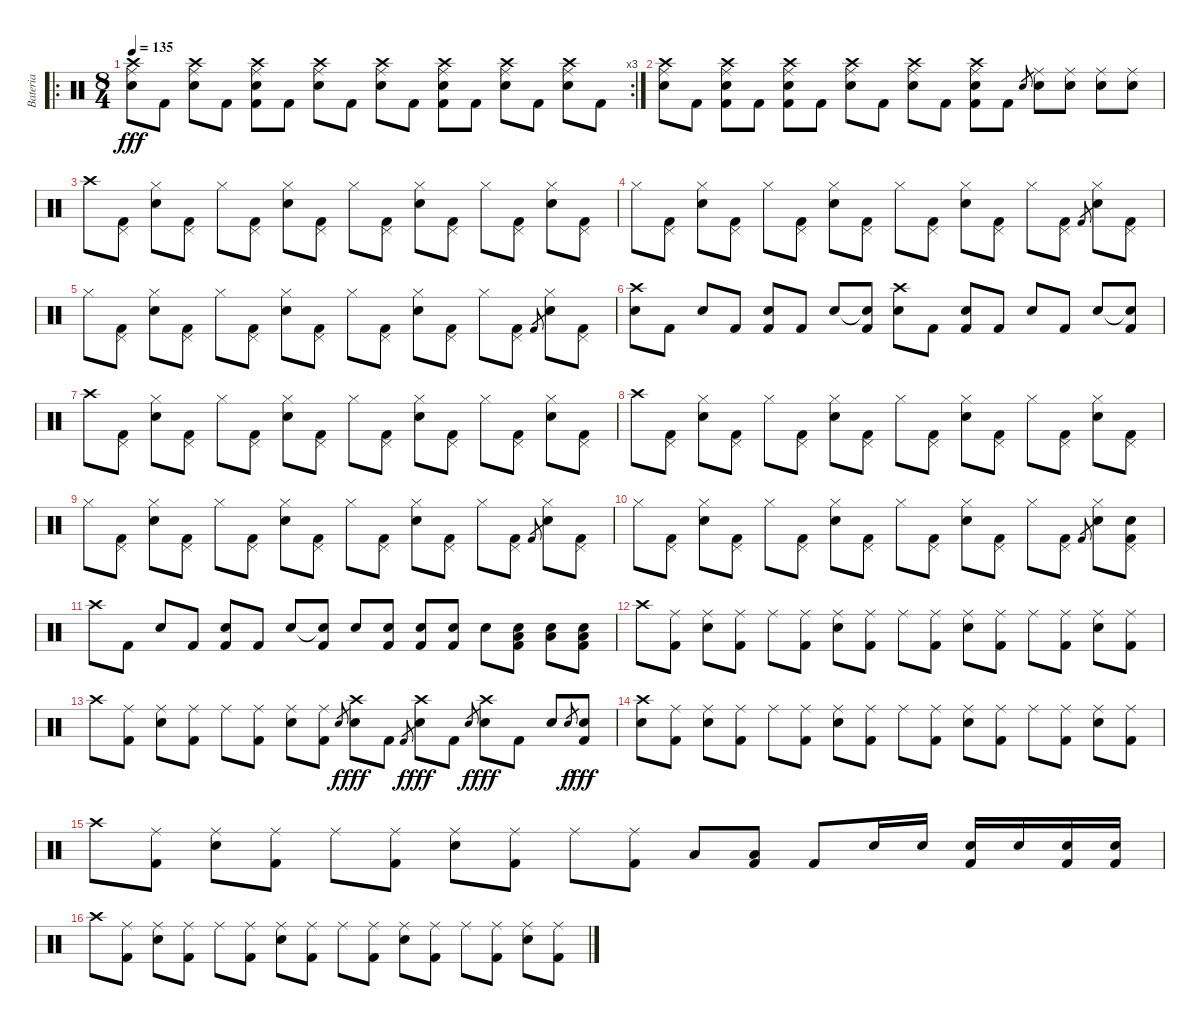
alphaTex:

\track ("Bateria" "Bateria") {instrument percussion}
\staff {score}
\articulation defaults
\ro
\rc 3
\ts (8 4)
\tempo 135
\clef neutral
\ks c
("Ride (middle)" "Crash high (hit)" "Electric Snare (hit)").8{dy fff} "Kick (hit) 2".8 ("Ride (middle)" "Crash high (hit)" "Electric Snare (hit)").8 "Kick (hit) 2".8 ("Ride (middle)" "Crash high (hit)" "Electric Snare (hit)" "Kick (hit) 2").8 "Kick (hit) 2".8 ("Ride (middle)" "Crash high (hit)" "Electric Snare (hit)").8 "Kick (hit) 2".8 ("Ride (middle)" "Crash high (hit)" "Electric Snare (hit)").8 "Kick (hit) 2".8 ("Ride (middle)" "Crash high (hit)" "Electric Snare (hit)" "Kick (hit) 2").8 "Kick (hit) 2".8 ("Ride (middle)" "Crash high (hit)" "Electric Snare (hit)").8 "Kick (hit) 2".8 ("Ride (middle)" "Crash high (hit)" "Electric Snare (hit)").8 "Kick (hit) 2".8 |
("Ride (middle)" "Crash high (hit)" "Electric Snare (hit)").8 "Kick (hit) 2".8 ("Ride (middle)" "Crash high (hit)" "Electric Snare (hit)" "Kick (hit) 2").8 "Kick (hit) 2".8 ("Ride (middle)" "Crash high (hit)" "Electric Snare (hit)" "Kick (hit) 2").8 "Kick (hit) 2".8 ("Ride (middle)" "Crash high (hit)" "Electric Snare (hit)").8 "Kick (hit) 2".8 ("Ride (middle)" "Crash high (hit)" "Electric Snare (hit)").8 "Kick (hit) 2".8 ("Ride (middle)" "Crash high (hit)" "Electric Snare (hit)" "Kick (hit) 2").8 "Kick (hit) 2".8 "Electric Snare (hit)".8{gr} ("Ride (middle)" "Electric Snare (hit)").8 ("Ride (middle)" "Electric Snare (hit)").8 ("Ride (middle)" "Electric Snare (hit)").8 ("Ride (middle)" "Electric Snare (hit)").8 |
"Crash high (hit)".8 ("Pedal Hi-Hat (hit)" "Kick (hit) 2").8 ("Hi-Hat (closed)" "Electric Snare (hit)").8 ("Pedal Hi-Hat (hit)" "Kick (hit) 2").8 "Hi-Hat (closed)".8 ("Pedal Hi-Hat (hit)" "Kick (hit) 2").8 ("Hi-Hat (closed)" "Electric Snare (hit)").8 ("Pedal Hi-Hat (hit)" "Kick (hit) 2").8 "Hi-Hat (closed)".8 ("Pedal Hi-Hat (hit)" "Kick (hit) 2").8 ("Hi-Hat (closed)" "Electric Snare (hit)").8 ("Pedal Hi-Hat (hit)" "Kick (hit) 2").8 "Hi-Hat (closed)".8 ("Pedal Hi-Hat (hit)" "Kick (hit) 2").8 ("Hi-Hat (closed)" "Electric Snare (hit)").8 ("Pedal Hi-Hat (hit)" "Kick (hit) 2").8 |
"Hi-Hat (closed)".8 ("Pedal Hi-Hat (hit)" "Kick (hit) 2").8 ("Hi-Hat (closed)" "Electric Snare (hit)").8 ("Pedal Hi-Hat (hit)" "Kick (hit) 2").8 "Hi-Hat (closed)".8 ("Pedal Hi-Hat (hit)" "Kick (hit) 2").8 ("Hi-Hat (closed)" "Electric Snare (hit)").8 ("Pedal Hi-Hat (hit)" "Kick (hit) 2").8 "Hi-Hat (closed)".8 ("Pedal Hi-Hat (hit)" "Kick (hit) 2").8 ("Hi-Hat (closed)" "Electric Snare (hit)").8 ("Pedal Hi-Hat (hit)" "Kick (hit) 2").8 "Hi-Hat (closed)".8 ("Pedal Hi-Hat (hit)" "Kick (hit) 2").8 "Kick (hit) 2".8{gr} ("Hi-Hat (closed)" "Electric Snare (hit)").8 ("Pedal Hi-Hat (hit)" "Kick (hit) 2").8 |
"Hi-Hat (closed)".8 ("Pedal Hi-Hat (hit)" "Kick (hit) 2").8 ("Hi-Hat (closed)" "Electric Snare (hit)").8 ("Pedal Hi-Hat (hit)" "Kick (hit) 2").8 "Hi-Hat (closed)".8 ("Pedal Hi-Hat (hit)" "Kick (hit) 2").8 ("Hi-Hat (closed)" "Electric Snare (hit)").8 ("Pedal Hi-Hat (hit)" "Kick (hit) 2").8 "Hi-Hat (closed)".8 ("Pedal Hi-Hat (hit)" "Kick (hit) 2").8 ("Hi-Hat (closed)" "Electric Snare (hit)").8 ("Pedal Hi-Hat (hit)" "Kick (hit) 2").8 "Hi-Hat (closed)".8 ("Pedal Hi-Hat (hit)" "Kick (hit) 2").8 "Kick (hit) 2".8{gr} ("Hi-Hat (closed)" "Electric Snare (hit)").8 ("Pedal Hi-Hat (hit)" "Kick (hit) 2").8 |
("Crash high (hit)" "Electric Snare (hit)").8 "Kick (hit) 2".8 "Electric Snare (hit)".8 "Kick (hit) 2".8 ("Electric Snare (hit)" "Kick (hit) 2").8 "Kick (hit) 2".8 "Electric Snare (hit)".8 ("Snare (hit)"{t} "Kick (hit) 2").8 ("Crash high (hit)" "Electric Snare (hit)").8 "Kick (hit) 2".8 ("Electric Snare (hit)" "Kick (hit) 2").8 "Kick (hit) 2".8 "Electric Snare (hit)".8 "Kick (hit) 2".8 "Electric Snare (hit)".8 ("Snare (hit)"{t} "Kick (hit) 2").8 |
"Crash high (hit)".8 ("Pedal Hi-Hat (hit)" "Kick (hit) 2").8 ("Hi-Hat (closed)" "Electric Snare (hit)").8 ("Pedal Hi-Hat (hit)" "Kick (hit) 2").8 "Hi-Hat (closed)".8 ("Pedal Hi-Hat (hit)" "Kick (hit) 2").8 ("Hi-Hat (closed)" "Electric Snare (hit)").8 ("Pedal Hi-Hat (hit)" "Kick (hit) 2").8 "Hi-Hat (closed)".8 ("Pedal Hi-Hat (hit)" "Kick (hit) 2").8 ("Hi-Hat (closed)" "Electric Snare (hit)").8 ("Pedal Hi-Hat (hit)" "Kick (hit) 2").8 "Hi-Hat (closed)".8 ("Pedal Hi-Hat (hit)" "Kick (hit) 2").8 ("Hi-Hat (closed)" "Electric Snare (hit)").8 ("Pedal Hi-Hat (hit)" "Kick (hit) 2").8 |
"Crash high (hit)".8 ("Pedal Hi-Hat (hit)" "Kick (hit) 2").8 ("Hi-Hat (closed)" "Electric Snare (hit)").8 ("Pedal Hi-Hat (hit)" "Kick (hit) 2").8 "Hi-Hat (closed)".8 ("Pedal Hi-Hat (hit)" "Kick (hit) 2").8 ("Hi-Hat (closed)" "Electric Snare (hit)").8 ("Pedal Hi-Hat (hit)" "Kick (hit) 2").8 "Hi-Hat (closed)".8 ("Pedal Hi-Hat (hit)" "Kick (hit) 2").8 ("Hi-Hat (closed)" "Electric Snare (hit)").8 ("Pedal Hi-Hat (hit)" "Kick (hit) 2").8 "Hi-Hat (closed)".8 ("Pedal Hi-Hat (hit)" "Kick (hit) 2").8 ("Hi-Hat (closed)" "Electric Snare (hit)").8 ("Pedal Hi-Hat (hit)" "Kick (hit) 2").8 |
"Hi-Hat (closed)".8 ("Pedal Hi-Hat (hit)" "Kick (hit) 2").8 ("Hi-Hat (closed)" "Electric Snare (hit)").8 ("Pedal Hi-Hat (hit)" "Kick (hit) 2").8 "Hi-Hat (closed)".8 ("Pedal Hi-Hat (hit)" "Kick (hit) 2").8 ("Hi-Hat (closed)" "Electric Snare (hit)").8 ("Pedal Hi-Hat (hit)" "Kick (hit) 2").8 "Hi-Hat (closed)".8 ("Pedal Hi-Hat (hit)" "Kick (hit) 2").8 ("Hi-Hat (closed)" "Electric Snare (hit)").8 ("Pedal Hi-Hat (hit)" "Kick (hit) 2").8 "Hi-Hat (closed)".8 ("Pedal Hi-Hat (hit)" "Kick (hit) 2").8 "Kick (hit) 2".8{gr} ("Hi-Hat (closed)" "Electric Snare (hit)").8 ("Pedal Hi-Hat (hit)" "Kick (hit) 2").8 |
"Hi-Hat (closed)".8 ("Pedal Hi-Hat (hit)" "Kick (hit) 2").8 ("Hi-Hat (closed)" "Electric Snare (hit)").8 ("Pedal Hi-Hat (hit)" "Kick (hit) 2").8 "Hi-Hat (closed)".8 ("Pedal Hi-Hat (hit)" "Kick (hit) 2").8 ("Hi-Hat (closed)" "Electric Snare (hit)").8 ("Pedal Hi-Hat (hit)" "Kick (hit) 2").8 "Hi-Hat (closed)".8 ("Pedal Hi-Hat (hit)" "Kick (hit) 2").8 ("Hi-Hat (closed)" "Electric Snare (hit)").8 ("Pedal Hi-Hat (hit)" "Kick (hit) 2").8 "Hi-Hat (closed)".8 ("Pedal Hi-Hat (hit)" "Kick (hit) 2").8 "Kick (hit) 2".8{gr} ("Hi-Hat (closed)" "Electric Snare (hit)").8 ("Pedal Hi-Hat (hit)" "Electric Snare (hit)" "Kick (hit) 2").8 |
"Crash high (hit)".8 "Kick (hit) 2".8 "Electric Snare (hit)".8 "Kick (hit) 2".8 ("Electric Snare (hit)" "Kick (hit) 2").8 "Kick (hit) 2".8 "Electric Snare (hit)".8 ("Snare (hit)"{t} "Kick (hit) 2").8 "Electric Snare (hit)".8 ("Electric Snare (hit)" "Kick (hit) 2").8 ("Electric Snare (hit)" "Kick (hit) 2").8 ("Electric Snare (hit)" "Kick (hit) 2").8 "Electric Snare (hit)".8 ("Low Tom (hit)" "Electric Snare (hit)" "Kick (hit) 2").8 ("Low Tom (hit)" "Electric Snare (hit)").8 ("Low Tom (hit)" "Electric Snare (hit)" "Kick (hit) 2").8 |
"Crash high (hit)".8 ("Ride (middle)" "Kick (hit) 2").8 ("Ride (middle)" "Electric Snare (hit)").8 ("Ride (middle)" "Kick (hit) 2").8 "Ride (middle)".8 ("Ride (middle)" "Kick (hit) 2").8 ("Ride (middle)" "Electric Snare (hit)").8 ("Ride (middle)" "Kick (hit) 2").8 "Ride (middle)".8 ("Ride (middle)" "Kick (hit) 2").8 ("Ride (middle)" "Electric Snare (hit)").8 ("Ride (middle)" "Kick (hit) 2").8 "Ride (middle)".8 ("Ride (middle)" "Kick (hit) 2").8 ("Ride (middle)" "Electric Snare (hit)").8 ("Ride (middle)" "Kick (hit) 2").8 |
"Crash high (hit)".8 ("Ride (middle)" "Kick (hit) 2").8 ("Ride (middle)" "Electric Snare (hit)").8 ("Ride (middle)" "Kick (hit) 2").8 "Ride (middle)".8 ("Ride (middle)" "Kick (hit) 2").8 ("Ride (middle)" "Electric Snare (hit)").8 ("Ride (middle)" "Kick (hit) 2").8 "Electric Snare (hit)".8{gr dy f} ("Crash high (hit)" "Electric Snare (hit)").8{dy fff} "Kick (hit) 2".8 "Kick (hit) 2".8{gr dy f} ("Crash high (hit)" "Electric Snare (hit)").8{dy fff} "Kick (hit) 2".8 "Electric Snare (hit)".8{gr dy f} ("Crash high (hit)" "Electric Snare (hit)").8{dy fff} "Kick (hit) 2".8 "Electric Snare (hit)".8 "Electric Snare (hit)".8{gr dy f} ("Electric Snare (hit)" "Kick (hit) 2").8{dy fff} |
("Crash high (hit)" "Electric Snare (hit)").8 ("Ride (middle)" "Kick (hit) 2").8 ("Ride (middle)" "Electric Snare (hit)").8 ("Ride (middle)" "Kick (hit) 2").8 "Ride (middle)".8 ("Ride (middle)" "Kick (hit) 2").8 ("Ride (middle)" "Electric Snare (hit)").8 ("Ride (middle)" "Kick (hit) 2").8 "Ride (middle)".8 ("Ride (middle)" "Kick (hit) 2").8 ("Ride (middle)" "Electric Snare (hit)").8 ("Ride (middle)" "Kick (hit) 2").8 "Ride (middle)".8 ("Ride (middle)" "Kick (hit) 2").8 ("Ride (middle)" "Electric Snare (hit)").8 ("Ride (middle)" "Kick (hit) 2").8 |
"Crash high (hit)".8 ("Ride (middle)" "Kick (hit) 2").8 ("Ride (middle)" "Electric Snare (hit)").8 ("Ride (middle)" "Kick (hit) 2").8 "Ride (middle)".8 ("Ride (middle)" "Kick (hit) 2").8 ("Ride (middle)" "Electric Snare (hit)").8 ("Ride (middle)" "Kick (hit) 2").8 "Ride (middle)".8 ("Ride (middle)" "Kick (hit) 2").8 "Low Tom (hit)".8 ("Low Tom (hit)" "Kick (hit) 2").8 "Kick (hit) 2".8 "Electric Snare (hit)".16 "Electric Snare (hit)".16 ("Electric Snare (hit)" "Kick (hit) 2").16 "Electric Snare (hit)".16 ("Electric Snare (hit)" "Kick (hit) 2").16 ("Electric Snare (hit)" "Kick (hit) 2").16 |
"Crash high (hit)".8 ("Ride (middle)" "Kick (hit) 2").8 ("Ride (middle)" "Electric Snare (hit)").8 ("Ride (middle)" "Kick (hit) 2").8 "Ride (middle)".8 ("Ride (middle)" "Kick (hit) 2").8 ("Ride (middle)" "Electric Snare (hit)").8 ("Ride (middle)" "Kick (hit) 2").8 "Ride (middle)".8 ("Ride (middle)" "Kick (hit) 2").8 ("Ride (middle)" "Electric Snare (hit)").8 ("Ride (middle)" "Kick (hit) 2").8 "Ride (middle)".8 ("Ride (middle)" "Kick (hit) 2").8 ("Ride (middle)" "Electric Snare (hit)").8 ("Ride (middle)" "Kick (hit) 2").8
